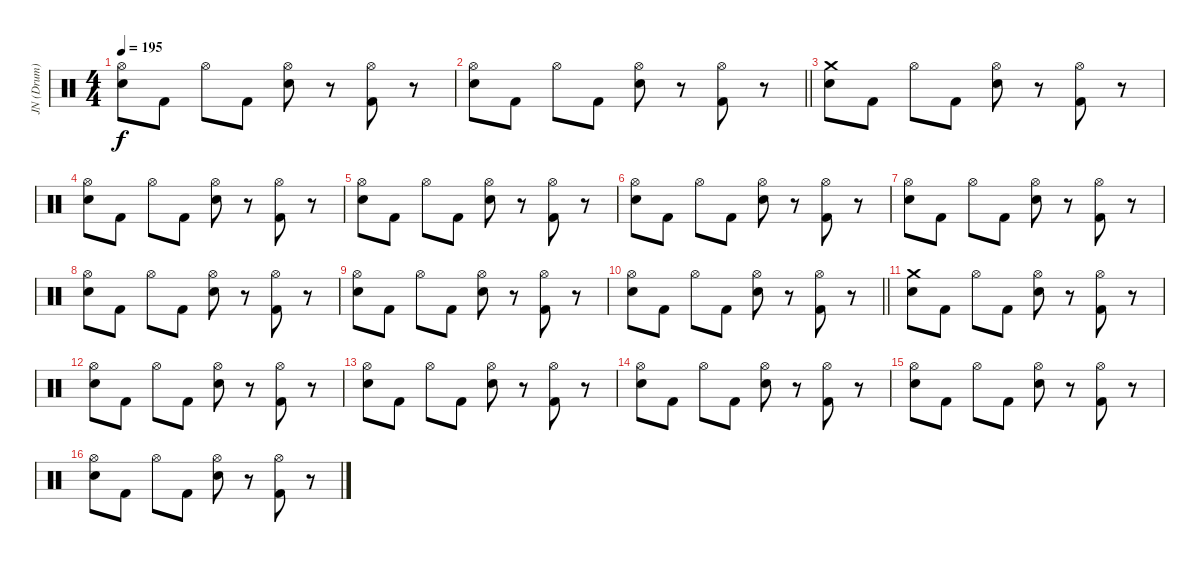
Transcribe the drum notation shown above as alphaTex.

\track ("JN (Drum)" "JN (Drum)") {instrument percussion}
\staff {score}
\articulation defaults
\ts (4 4)
\tempo 195
\clef neutral
\ks c
("Hi-Hat (open)" "Electric Snare (hit)").8{dy f} "Kick (hit) 2".8 "Hi-Hat (open)".8 "Kick (hit) 2".8 ("Hi-Hat (open)" "Electric Snare (hit)").8 r.8 ("Hi-Hat (open)" "Kick (hit) 2").8 r.8 |
\barLineRight lightlight
("Hi-Hat (open)" "Electric Snare (hit)").8 "Kick (hit) 2".8 "Hi-Hat (open)".8 "Kick (hit) 2".8 ("Hi-Hat (open)" "Electric Snare (hit)").8 r.8 ("Hi-Hat (open)" "Kick (hit) 2").8 r.8 |
("Crash medium (hit)" "Electric Snare (hit)").8 "Kick (hit) 2".8 "Hi-Hat (open)".8 "Kick (hit) 2".8 ("Hi-Hat (open)" "Electric Snare (hit)").8 r.8 ("Hi-Hat (open)" "Kick (hit) 2").8 r.8 |
("Hi-Hat (open)" "Electric Snare (hit)").8 "Kick (hit) 2".8 "Hi-Hat (open)".8 "Kick (hit) 2".8 ("Hi-Hat (open)" "Electric Snare (hit)").8 r.8 ("Hi-Hat (open)" "Kick (hit) 2").8 r.8 |
("Hi-Hat (open)" "Electric Snare (hit)").8 "Kick (hit) 2".8 "Hi-Hat (open)".8 "Kick (hit) 2".8 ("Hi-Hat (open)" "Electric Snare (hit)").8 r.8 ("Hi-Hat (open)" "Kick (hit) 2").8 r.8 |
("Hi-Hat (open)" "Electric Snare (hit)").8 "Kick (hit) 2".8 "Hi-Hat (open)".8 "Kick (hit) 2".8 ("Hi-Hat (open)" "Electric Snare (hit)").8 r.8 ("Hi-Hat (open)" "Kick (hit) 2").8 r.8 |
("Hi-Hat (open)" "Electric Snare (hit)").8 "Kick (hit) 2".8 "Hi-Hat (open)".8 "Kick (hit) 2".8 ("Hi-Hat (open)" "Electric Snare (hit)").8 r.8 ("Hi-Hat (open)" "Kick (hit) 2").8 r.8 |
("Hi-Hat (open)" "Electric Snare (hit)").8 "Kick (hit) 2".8 "Hi-Hat (open)".8 "Kick (hit) 2".8 ("Hi-Hat (open)" "Electric Snare (hit)").8 r.8 ("Hi-Hat (open)" "Kick (hit) 2").8 r.8 |
("Hi-Hat (open)" "Electric Snare (hit)").8 "Kick (hit) 2".8 "Hi-Hat (open)".8 "Kick (hit) 2".8 ("Hi-Hat (open)" "Electric Snare (hit)").8 r.8 ("Hi-Hat (open)" "Kick (hit) 2").8 r.8 |
\barLineRight lightlight
("Hi-Hat (open)" "Electric Snare (hit)").8 "Kick (hit) 2".8 "Hi-Hat (open)".8 "Kick (hit) 2".8 ("Hi-Hat (open)" "Electric Snare (hit)").8 r.8 ("Hi-Hat (open)" "Kick (hit) 2").8 r.8 |
("Crash medium (hit)" "Electric Snare (hit)").8 "Kick (hit) 2".8 "Hi-Hat (open)".8 "Kick (hit) 2".8 ("Hi-Hat (open)" "Electric Snare (hit)").8 r.8 ("Hi-Hat (open)" "Kick (hit) 2").8 r.8 |
("Hi-Hat (open)" "Electric Snare (hit)").8 "Kick (hit) 2".8 "Hi-Hat (open)".8 "Kick (hit) 2".8 ("Hi-Hat (open)" "Electric Snare (hit)").8 r.8 ("Hi-Hat (open)" "Kick (hit) 2").8 r.8 |
("Hi-Hat (open)" "Electric Snare (hit)").8 "Kick (hit) 2".8 "Hi-Hat (open)".8 "Kick (hit) 2".8 ("Hi-Hat (open)" "Electric Snare (hit)").8 r.8 ("Hi-Hat (open)" "Kick (hit) 2").8 r.8 |
("Hi-Hat (open)" "Electric Snare (hit)").8 "Kick (hit) 2".8 "Hi-Hat (open)".8 "Kick (hit) 2".8 ("Hi-Hat (open)" "Electric Snare (hit)").8 r.8 ("Hi-Hat (open)" "Kick (hit) 2").8 r.8 |
("Hi-Hat (open)" "Electric Snare (hit)").8 "Kick (hit) 2".8 "Hi-Hat (open)".8 "Kick (hit) 2".8 ("Hi-Hat (open)" "Electric Snare (hit)").8 r.8 ("Hi-Hat (open)" "Kick (hit) 2").8 r.8 |
("Hi-Hat (open)" "Electric Snare (hit)").8 "Kick (hit) 2".8 "Hi-Hat (open)".8 "Kick (hit) 2".8 ("Hi-Hat (open)" "Electric Snare (hit)").8 r.8 ("Hi-Hat (open)" "Kick (hit) 2").8 r.8
